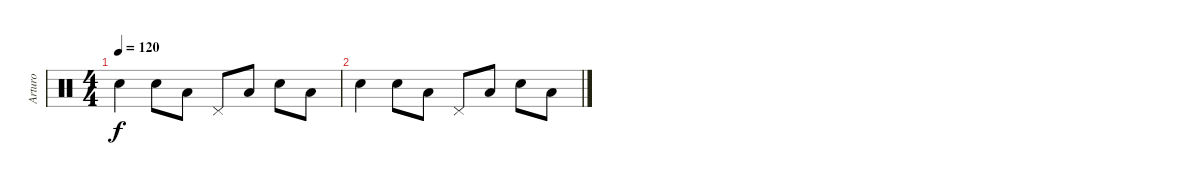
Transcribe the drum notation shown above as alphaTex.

\track ("Arturo" "Arturo") {instrument percussion}
\staff {score}
\articulation defaults
\ts (4 4)
\tempo 120
\clef neutral
\ks c "Snare (hit) 2".4{dy f} "Snare (hit) 2".8 "Low Tom (hit)".8 "Pedal Hi-Hat (hit)".8 "Low Tom (hit)".8 "Snare (hit) 2".8 "Low Tom (hit)".8
|
"Snare (hit) 2".4 "Snare (hit) 2".8 "Low Tom (hit)".8 "Pedal Hi-Hat (hit)".8 "Low Tom (hit)".8 "Snare (hit) 2".8 "Low Tom (hit)".8
